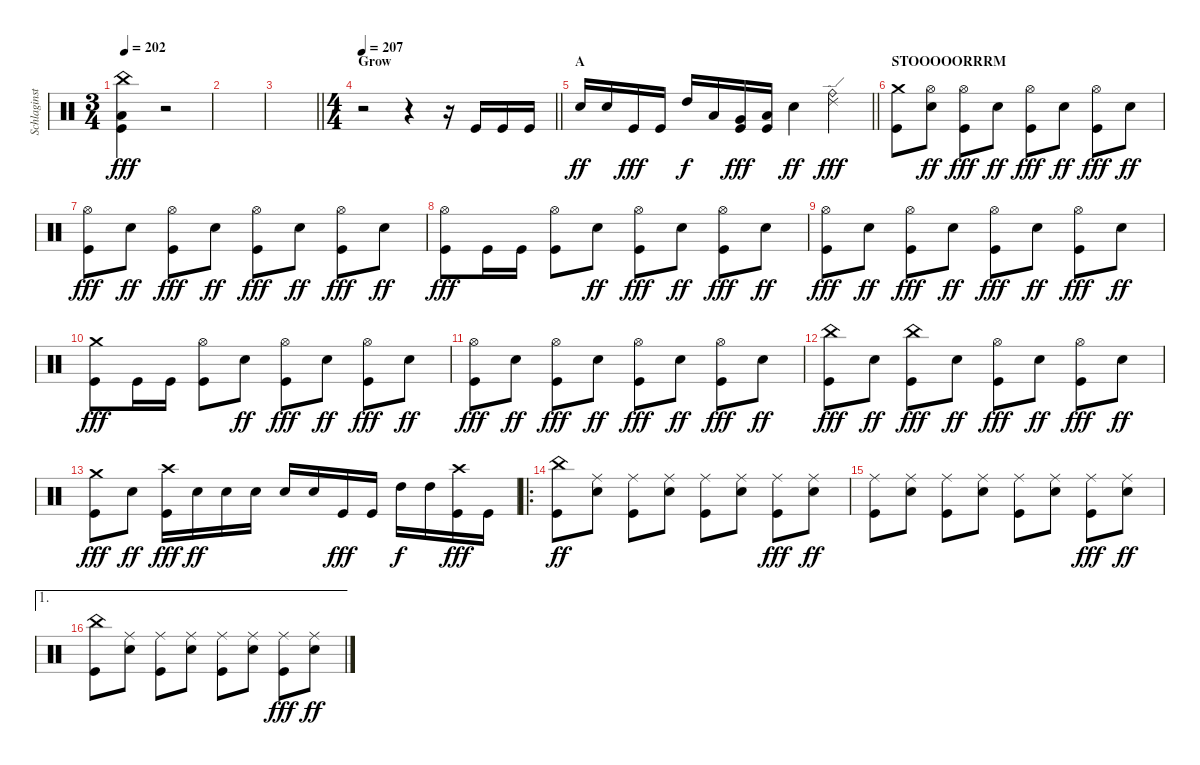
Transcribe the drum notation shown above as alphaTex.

\track ("Schlaginstrumente - Auswahl" "Schlaginst") {instrument percussion}
\staff {score}
\articulation defaults
\ts (3 4)
\tempo 202
\clef neutral
\ks c
("China (hit)" "Low Tom (hit)" "Kick (hit)").4{dy fff} r.2 |
|
\barLineRight lightlight
|
\ts (4 4)
\section ("" "Grow")
\tempo 207
\barLineRight lightlight
r.2 r.4 r.16 "Kick (hit)".16 "Kick (hit)".16 "Kick (hit)".16 |
\section ("" "A")
\barLineRight lightlight "Snare (hit) 2".16{dy ff} "Snare (hit) 2".16 "Kick (hit)".16{dy fff} "Kick (hit)".16 "High Tom (hit)".16{dy f} "Low Tom (hit)".16
("Very Low Tom (hit)" "Kick (hit)").16{dy fff} ("Low Floor Tom (hit)" "Kick (hit)").16 "Snare (hit) 2".4{dy ff} ("Ride (bell)" "Ride (edge) 2").4{dy fff} |
\section ("" "STOOOOORRRM")
("Crash medium (hit)" "Kick (hit)").8 ("Hi-Hat (open)" "Snare (hit) 2").8{dy ff} ("Hi-Hat (open)" "Kick (hit)").8{dy fff} "Snare (hit) 2".8{dy ff} ("Hi-Hat (open)" "Kick (hit)").8{dy fff} "Snare (hit) 2".8{dy ff} ("Hi-Hat (open)" "Kick (hit)").8{dy fff} "Snare (hit) 2".8{dy ff} |
("Hi-Hat (open)" "Kick (hit)").8{dy fff} "Snare (hit) 2".8{dy ff} ("Hi-Hat (open)" "Kick (hit)").8{dy fff} "Snare (hit) 2".8{dy ff} ("Hi-Hat (open)" "Kick (hit)").8{dy fff} "Snare (hit) 2".8{dy ff} ("Hi-Hat (open)" "Kick (hit)").8{dy fff} "Snare (hit) 2".8{dy ff} |
("Hi-Hat (open)" "Kick (hit)").8{dy fff} "Kick (hit)".16 "Kick (hit)".16 ("Hi-Hat (open)" "Kick (hit)").8 "Snare (hit) 2".8{dy ff} ("Hi-Hat (open)" "Kick (hit)").8{dy fff} "Snare (hit) 2".8{dy ff} ("Hi-Hat (open)" "Kick (hit)").8{dy fff} "Snare (hit) 2".8{dy ff} |
("Hi-Hat (open)" "Kick (hit)").8{dy fff} "Snare (hit) 2".8{dy ff} ("Hi-Hat (open)" "Kick (hit)").8{dy fff} "Snare (hit) 2".8{dy ff} ("Hi-Hat (open)" "Kick (hit)").8{dy fff} "Snare (hit) 2".8{dy ff} ("Hi-Hat (open)" "Kick (hit)").8{dy fff} "Snare (hit) 2".8{dy ff} |
("Crash medium (hit)" "Kick (hit)").8{dy fff} "Kick (hit)".16 "Kick (hit)".16 ("Hi-Hat (open)" "Kick (hit)").8 "Snare (hit) 2".8{dy ff} ("Hi-Hat (open)" "Kick (hit)").8{dy fff} "Snare (hit) 2".8{dy ff} ("Hi-Hat (open)" "Kick (hit)").8{dy fff} "Snare (hit) 2".8{dy ff} |
("Hi-Hat (open)" "Kick (hit)").8{dy fff} "Snare (hit) 2".8{dy ff} ("Hi-Hat (open)" "Kick (hit)").8{dy fff} "Snare (hit) 2".8{dy ff} ("Hi-Hat (open)" "Kick (hit)").8{dy fff} "Snare (hit) 2".8{dy ff} ("Hi-Hat (open)" "Kick (hit)").8{dy fff} "Snare (hit) 2".8{dy ff} |
("China (hit)" "Kick (hit)").8{dy fff} "Snare (hit) 2".8{dy ff} ("China (hit)" "Kick (hit)").8{dy fff} "Snare (hit) 2".8{dy ff} ("Hi-Hat (open)" "Kick (hit)").8{dy fff} "Snare (hit) 2".8{dy ff} ("Hi-Hat (open)" "Kick (hit)").8{dy fff} "Snare (hit) 2".8{dy ff} |
("Crash medium (hit)" "Kick (hit)").8{dy fff} "Snare (hit) 2".8{dy ff} ("Crash high (hit)" "Kick (hit)").16{dy fff} "Snare (hit) 2".16{dy ff} "Snare (hit) 2".16 "Snare (hit) 2".16 "Snare (hit) 2".16 "Snare (hit) 2".16 "Kick (hit)".16{dy fff} "Kick (hit)".16 "High Tom (hit)".16{dy f} "High Tom (hit)".16 ("Crash high (hit)" "Kick (hit)").16{dy fff} "Kick (hit)".16 |
\ro
("China (hit)" "Kick (hit)").8{dy ff} ("Ride (middle)" "Snare (hit) 2").8 ("Ride (middle)" "Kick (hit)").8 ("Ride (middle)" "Snare (hit) 2").8 ("Ride (middle)" "Kick (hit)").8 ("Ride (middle)" "Snare (hit) 2").8 ("Ride (middle)" "Kick (hit)").8{dy fff} ("Ride (middle)" "Snare (hit) 2").8{dy ff} |
("Ride (middle)" "Kick (hit)").8 ("Ride (middle)" "Snare (hit) 2").8 ("Ride (middle)" "Kick (hit)").8 ("Ride (middle)" "Snare (hit) 2").8 ("Ride (middle)" "Kick (hit)").8 ("Ride (middle)" "Snare (hit) 2").8 ("Ride (middle)" "Kick (hit)").8{dy fff} ("Ride (middle)" "Snare (hit) 2").8{dy ff} |
\ae 1
("China (hit)" "Kick (hit)").8 ("Ride (middle)" "Snare (hit) 2").8 ("Ride (middle)" "Kick (hit)").8 ("Ride (middle)" "Snare (hit) 2").8 ("Ride (middle)" "Kick (hit)").8 ("Ride (middle)" "Snare (hit) 2").8 ("Ride (middle)" "Kick (hit)").8{dy fff} ("Ride (middle)" "Snare (hit) 2").8{dy ff}
